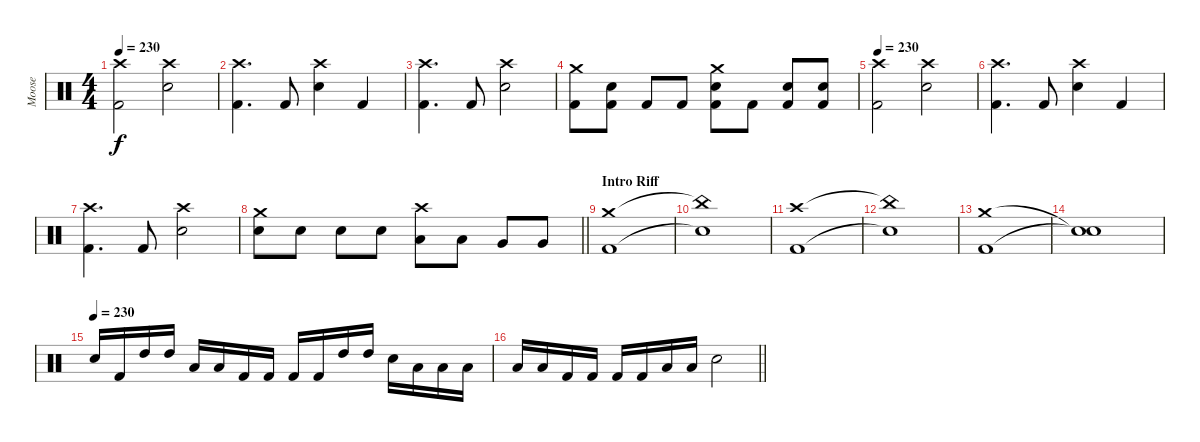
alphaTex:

\track ("Moose" "Moose") {instrument percussion}
\staff {score}
\articulation defaults
\ts (4 4)
\tempo 230
\clef neutral
\ks c
("Crash high (hit)" "Kick (hit) 2").2{dy f} ("Crash high (hit)" "Snare (hit) 2").2 |
("Crash high (hit)" "Kick (hit) 2").4{d} "Kick (hit) 2".8 ("Crash high (hit)" "Snare (hit) 2").4 "Kick (hit) 2".4 |
("Crash high (hit)" "Kick (hit) 2").4{d} "Kick (hit) 2".8 ("Crash high (hit)" "Snare (hit) 2").2 |
("Crash medium (hit)" "Kick (hit) 2").8 ("Snare (hit) 2" "Kick (hit) 2").8 "Kick (hit) 2".8 "Kick (hit) 2".8 ("Crash medium (hit)" "Snare (hit) 2" "Kick (hit) 2").8 "Kick (hit) 2".8 ("Snare (hit) 2" "Kick (hit) 2").8 ("Snare (hit) 2" "Kick (hit) 2").8 |
\tempo 230
("Crash high (hit)" "Kick (hit) 2").2 ("Crash high (hit)" "Snare (hit) 2").2 |
("Crash high (hit)" "Kick (hit) 2").4{d} "Kick (hit) 2".8 ("Crash high (hit)" "Snare (hit) 2").4 "Kick (hit) 2".4 |
("Crash high (hit)" "Kick (hit) 2").4{d} "Kick (hit) 2".8 ("Crash high (hit)" "Snare (hit) 2").2 |
\barLineRight lightlight
("Crash medium (hit)" "Snare (hit) 2").8 "Snare (hit) 2".8 "Snare (hit) 2".8 "Snare (hit) 2".8 ("Crash high (hit)" "Low Tom (hit)").8 "Low Tom (hit)".8 "Very Low Tom (hit)".8 "Very Low Tom (hit)".8 |
\section ("" "Intro Riff")
("Crash medium (hit)" "Kick (hit) 2").1 |
("China (hit)"{t} "Snare (hit)"{t}).1 |
("Crash high (hit)" "Kick (hit) 2").1 |
("China (hit)"{t} "Snare (hit)"{t}).1 |
("Crash medium (hit)" "Kick (hit) 2").1 |
("Snare (hit)"{t} "Snare (hit)"{t}).1 |
\tempo (230)
"Snare (hit) 2".16 "Kick (hit) 2".16 "High Tom (hit)".16 "High Tom (hit)".16 "Low Tom (hit)".16 "Low Tom (hit)".16 "Kick (hit) 2".16 "Kick (hit) 2".16 "Kick (hit) 2".16 "Kick (hit) 2".16 "High Tom (hit)".16 "High Tom (hit)".16 "Snare (hit) 2".16 "Low Tom (hit)".16 "Low Tom (hit)".16 "Low Tom (hit)".16 |
\barLineRight lightlight "Low Tom (hit)".16 "Low Tom (hit)".16 "Kick (hit) 2".16 "Kick (hit) 2".16 "Kick (hit) 2".16 "Kick (hit) 2".16 "Low Tom (hit)".16 "Low Tom (hit)".16 "Snare (hit) 2".2
